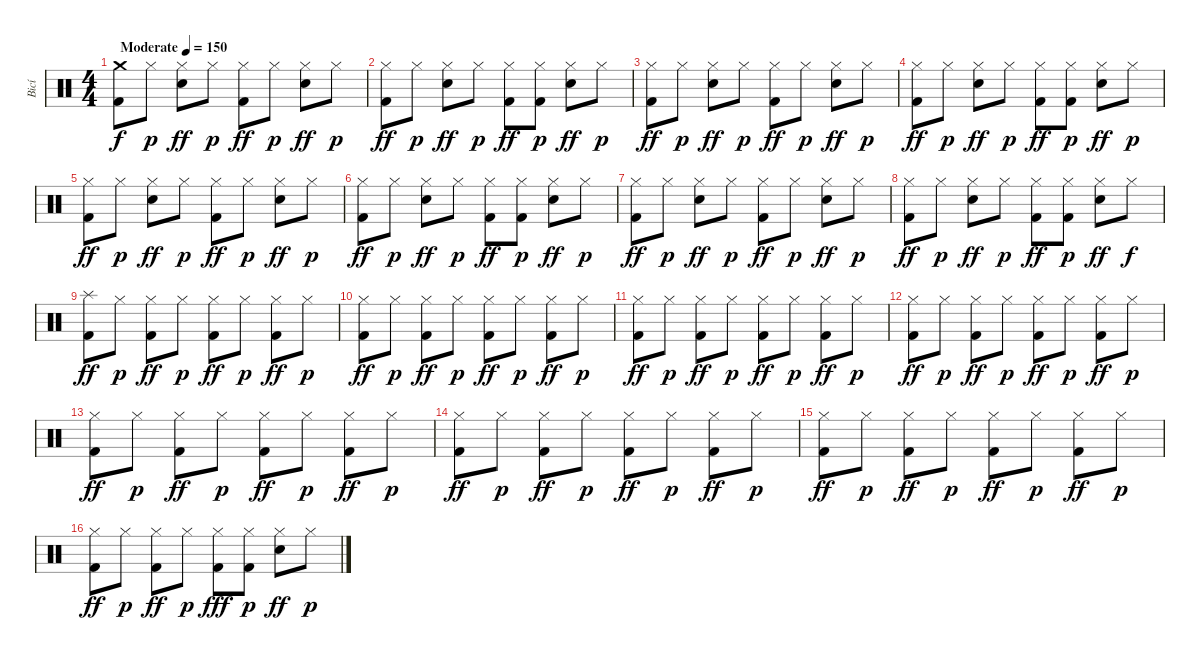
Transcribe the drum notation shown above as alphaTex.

\track ("Bicí" "Bicí") {solo instrument percussion}
\staff {score}
\articulation defaults
\ts (4 4)
\tempo (150 "Moderate")
\clef neutral
\ks c
("Crash medium (hit)" "Kick (hit) 2").8{dy f} "Hi-Hat (closed)".8{dy p} ("Hi-Hat (closed)" "Electric Snare (hit)").8{dy ff} "Hi-Hat (closed)".8{dy p} ("Hi-Hat (closed)" "Kick (hit) 2").8{dy ff} "Hi-Hat (closed)".8{dy p} ("Hi-Hat (closed)" "Electric Snare (hit)").8{dy ff} "Hi-Hat (closed)".8{dy p} |
("Hi-Hat (closed)" "Kick (hit) 2").8{dy ff} "Hi-Hat (closed)".8{dy p} ("Hi-Hat (closed)" "Electric Snare (hit)").8{dy ff} "Hi-Hat (closed)".8{dy p} ("Hi-Hat (closed)" "Kick (hit) 2").8{dy ff} ("Hi-Hat (closed)" "Kick (hit) 2").8{dy p} ("Hi-Hat (closed)" "Electric Snare (hit)").8{dy ff} "Hi-Hat (closed)".8{dy p} |
("Hi-Hat (closed)" "Kick (hit) 2").8{dy ff} "Hi-Hat (closed)".8{dy p} ("Hi-Hat (closed)" "Electric Snare (hit)").8{dy ff} "Hi-Hat (closed)".8{dy p} ("Hi-Hat (closed)" "Kick (hit) 2").8{dy ff} "Hi-Hat (closed)".8{dy p} ("Hi-Hat (closed)" "Electric Snare (hit)").8{dy ff} "Hi-Hat (closed)".8{dy p} |
("Hi-Hat (closed)" "Kick (hit) 2").8{dy ff} "Hi-Hat (closed)".8{dy p} ("Hi-Hat (closed)" "Electric Snare (hit)").8{dy ff} "Hi-Hat (closed)".8{dy p} ("Hi-Hat (closed)" "Kick (hit) 2").8{dy ff} ("Hi-Hat (closed)" "Kick (hit) 2").8{dy p} ("Hi-Hat (closed)" "Electric Snare (hit)").8{dy ff} "Hi-Hat (closed)".8{dy p} |
("Hi-Hat (closed)" "Kick (hit) 2").8{dy ff} "Hi-Hat (closed)".8{dy p} ("Hi-Hat (closed)" "Electric Snare (hit)").8{dy ff} "Hi-Hat (closed)".8{dy p} ("Hi-Hat (closed)" "Kick (hit) 2").8{dy ff} "Hi-Hat (closed)".8{dy p} ("Hi-Hat (closed)" "Electric Snare (hit)").8{dy ff} "Hi-Hat (closed)".8{dy p} |
("Hi-Hat (closed)" "Kick (hit) 2").8{dy ff} "Hi-Hat (closed)".8{dy p} ("Hi-Hat (closed)" "Electric Snare (hit)").8{dy ff} "Hi-Hat (closed)".8{dy p} ("Hi-Hat (closed)" "Kick (hit) 2").8{dy ff} ("Hi-Hat (closed)" "Kick (hit) 2").8{dy p} ("Hi-Hat (closed)" "Electric Snare (hit)").8{dy ff} "Hi-Hat (closed)".8{dy p} |
("Hi-Hat (closed)" "Kick (hit) 2").8{dy ff} "Hi-Hat (closed)".8{dy p} ("Hi-Hat (closed)" "Electric Snare (hit)").8{dy ff} "Hi-Hat (closed)".8{dy p} ("Hi-Hat (closed)" "Kick (hit) 2").8{dy ff} "Hi-Hat (closed)".8{dy p} ("Hi-Hat (closed)" "Electric Snare (hit)").8{dy ff} "Hi-Hat (closed)".8{dy p} |
("Hi-Hat (closed)" "Kick (hit) 2").8{dy ff} "Hi-Hat (closed)".8{dy p} ("Hi-Hat (closed)" "Electric Snare (hit)").8{dy ff} "Hi-Hat (closed)".8{dy p} ("Hi-Hat (closed)" "Kick (hit) 2").8{dy ff} ("Hi-Hat (closed)" "Kick (hit) 2").8{dy p} ("Hi-Hat (closed)" "Electric Snare (hit)").8{dy ff} "Hi-Hat (closed)".8{dy f} |
("Splash (hit)" "Kick (hit) 2").8{dy ff} "Hi-Hat (closed)".8{dy p} ("Hi-Hat (closed)" "Kick (hit) 2").8{dy ff} "Hi-Hat (closed)".8{dy p} ("Hi-Hat (closed)" "Kick (hit) 2").8{dy ff} "Hi-Hat (closed)".8{dy p} ("Hi-Hat (closed)" "Kick (hit) 2").8{dy ff} "Hi-Hat (closed)".8{dy p} |
("Hi-Hat (closed)" "Kick (hit) 2").8{dy ff} "Hi-Hat (closed)".8{dy p} ("Hi-Hat (closed)" "Kick (hit) 2").8{dy ff} "Hi-Hat (closed)".8{dy p} ("Hi-Hat (closed)" "Kick (hit) 2").8{dy ff} "Hi-Hat (closed)".8{dy p} ("Hi-Hat (closed)" "Kick (hit) 2").8{dy ff} "Hi-Hat (closed)".8{dy p} |
("Hi-Hat (closed)" "Kick (hit) 2").8{dy ff} "Hi-Hat (closed)".8{dy p} ("Hi-Hat (closed)" "Kick (hit) 2").8{dy ff} "Hi-Hat (closed)".8{dy p} ("Hi-Hat (closed)" "Kick (hit) 2").8{dy ff} "Hi-Hat (closed)".8{dy p} ("Hi-Hat (closed)" "Kick (hit) 2").8{dy ff} "Hi-Hat (closed)".8{dy p} |
("Hi-Hat (closed)" "Kick (hit) 2").8{dy ff} "Hi-Hat (closed)".8{dy p} ("Hi-Hat (closed)" "Kick (hit) 2").8{dy ff} "Hi-Hat (closed)".8{dy p} ("Hi-Hat (closed)" "Kick (hit) 2").8{dy ff} "Hi-Hat (closed)".8{dy p} ("Hi-Hat (closed)" "Kick (hit) 2").8{dy ff} "Hi-Hat (closed)".8{dy p} |
("Hi-Hat (closed)" "Kick (hit) 2").8{dy ff} "Hi-Hat (closed)".8{dy p} ("Hi-Hat (closed)" "Kick (hit) 2").8{dy ff} "Hi-Hat (closed)".8{dy p} ("Hi-Hat (closed)" "Kick (hit) 2").8{dy ff} "Hi-Hat (closed)".8{dy p} ("Hi-Hat (closed)" "Kick (hit) 2").8{dy ff} "Hi-Hat (closed)".8{dy p} |
("Hi-Hat (closed)" "Kick (hit) 2").8{dy ff} "Hi-Hat (closed)".8{dy p} ("Hi-Hat (closed)" "Kick (hit) 2").8{dy ff} "Hi-Hat (closed)".8{dy p} ("Hi-Hat (closed)" "Kick (hit) 2").8{dy ff} "Hi-Hat (closed)".8{dy p} ("Hi-Hat (closed)" "Kick (hit) 2").8{dy ff} "Hi-Hat (closed)".8{dy p} |
("Hi-Hat (closed)" "Kick (hit) 2").8{dy ff} "Hi-Hat (closed)".8{dy p} ("Hi-Hat (closed)" "Kick (hit) 2").8{dy ff} "Hi-Hat (closed)".8{dy p} ("Hi-Hat (closed)" "Kick (hit) 2").8{dy ff} "Hi-Hat (closed)".8{dy p} ("Hi-Hat (closed)" "Kick (hit) 2").8{dy ff} "Hi-Hat (closed)".8{dy p} |
("Hi-Hat (closed)" "Kick (hit) 2").8{dy ff} "Hi-Hat (closed)".8{dy p} ("Hi-Hat (closed)" "Kick (hit) 2").8{dy ff} "Hi-Hat (closed)".8{dy p} ("Hi-Hat (closed)" "Kick (hit) 2").8{dy fff} ("Hi-Hat (closed)" "Kick (hit) 2").8{dy p} ("Hi-Hat (closed)" "Electric Snare (hit)").8{dy ff} "Hi-Hat (closed)".8{dy p}
